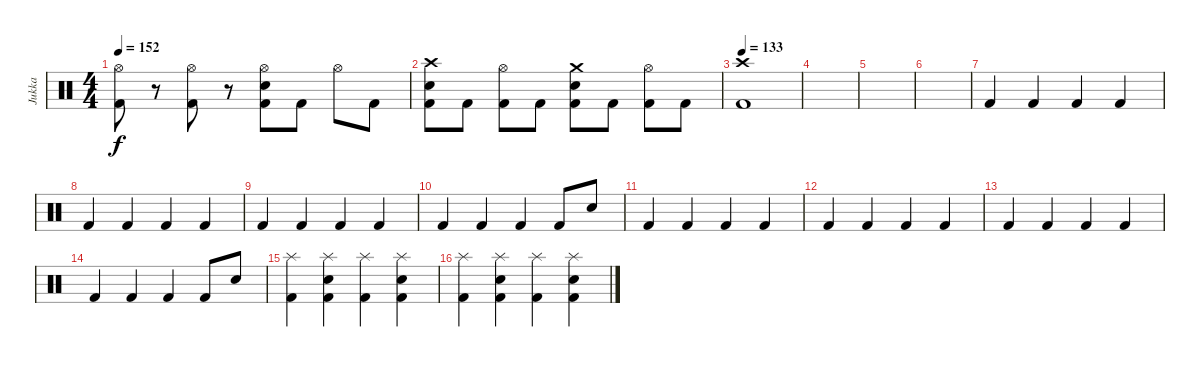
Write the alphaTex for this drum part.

\track ("Jukka" "Jukka") {instrument percussion}
\staff {score}
\articulation defaults
\ts (4 4)
\tempo 152
\clef neutral
\ks c
("Hi-Hat (open)" "Kick (hit) 2").8{dy f} r.8 ("Hi-Hat (open)" "Kick (hit) 2").8 r.8 ("Hi-Hat (open)" "Electric Snare (hit)" "Kick (hit) 2").8 "Kick (hit) 2".8 "Hi-Hat (open)".8 "Kick (hit) 2".8 |
("Crash high (hit)" "Electric Snare (hit)" "Kick (hit) 2").8 "Kick (hit) 2".8 ("Hi-Hat (open)" "Kick (hit) 2").8 "Kick (hit) 2".8 ("Crash medium (hit)" "Electric Snare (hit)" "Kick (hit) 2").8 "Kick (hit) 2".8 ("Hi-Hat (open)" "Kick (hit) 2").8 "Kick (hit) 2".8 |
\tempo 133
("Crash high (hit)" "Kick (hit) 2").1 |
|
|
|
"Kick (hit) 2".4 "Kick (hit) 2".4 "Kick (hit) 2".4 "Kick (hit) 2".4 |
"Kick (hit) 2".4 "Kick (hit) 2".4 "Kick (hit) 2".4 "Kick (hit) 2".4 |
"Kick (hit) 2".4 "Kick (hit) 2".4 "Kick (hit) 2".4 "Kick (hit) 2".4 |
"Kick (hit) 2".4 "Kick (hit) 2".4 "Kick (hit) 2".4 "Kick (hit) 2".8 "Electric Snare (hit)".8 |
"Kick (hit) 2".4 "Kick (hit) 2".4 "Kick (hit) 2".4 "Kick (hit) 2".4 |
"Kick (hit) 2".4 "Kick (hit) 2".4 "Kick (hit) 2".4 "Kick (hit) 2".4 |
"Kick (hit) 2".4 "Kick (hit) 2".4 "Kick (hit) 2".4 "Kick (hit) 2".4 |
"Kick (hit) 2".4 "Kick (hit) 2".4 "Kick (hit) 2".4 "Kick (hit) 2".8 "Electric Snare (hit)".8 |
("Splash (hit)" "Kick (hit) 2").4 ("Splash (hit)" "Electric Snare (hit)" "Kick (hit) 2").4 ("Splash (hit)" "Kick (hit) 2").4 ("Splash (hit)" "Electric Snare (hit)" "Kick (hit) 2").4 |
("Splash (hit)" "Kick (hit) 2").4 ("Splash (hit)" "Electric Snare (hit)" "Kick (hit) 2").4 ("Splash (hit)" "Kick (hit) 2").4 ("Splash (hit)" "Electric Snare (hit)" "Kick (hit) 2").4
